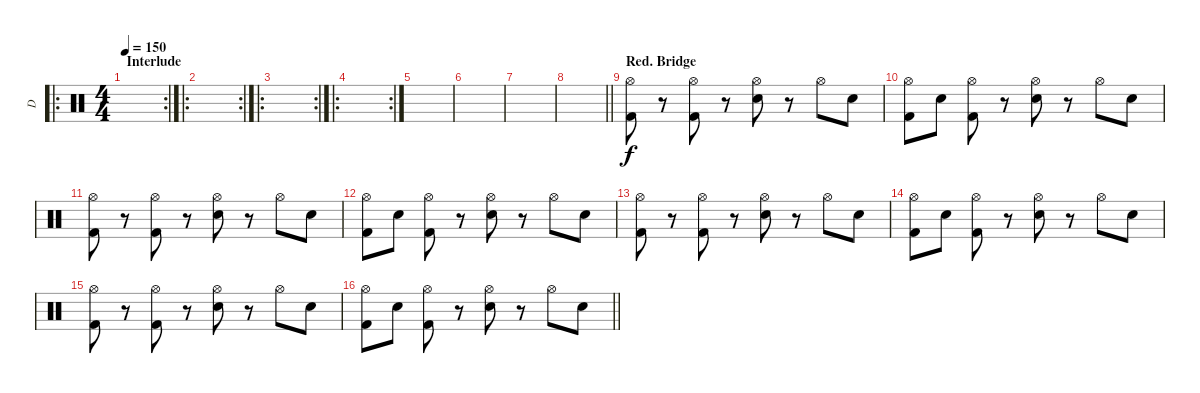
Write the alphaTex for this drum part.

\track ("D" "D") {instrument percussion}
\staff {score}
\articulation defaults
\ro
\rc 2
\ts (4 4)
\section ("" "Interlude")
\tempo 150
\clef neutral
\ks c
|
\ro
\rc 2
|
\ro
\rc 2
|
\ro
\rc 2
|
|
|
|
\barLineRight lightlight
|
\section ("" "Red. Bridge")
("Hi-Hat (open)" "Kick (hit) 2").8 r.8 ("Hi-Hat (open)" "Kick (hit) 2").8 r.8 ("Hi-Hat (open)" "Snare (hit) 2").8 r.8 "Hi-Hat (open)".8 "Snare (hit) 2".8 |
("Hi-Hat (open)" "Kick (hit) 2").8 "Snare (hit) 2".8 ("Hi-Hat (open)" "Kick (hit) 2").8 r.8 ("Hi-Hat (open)" "Snare (hit) 2").8 r.8 "Hi-Hat (open)".8 "Snare (hit) 2".8 |
("Hi-Hat (open)" "Kick (hit) 2").8 r.8 ("Hi-Hat (open)" "Kick (hit) 2").8 r.8 ("Hi-Hat (open)" "Snare (hit) 2").8 r.8 "Hi-Hat (open)".8 "Snare (hit) 2".8 |
("Hi-Hat (open)" "Kick (hit) 2").8 "Snare (hit) 2".8 ("Hi-Hat (open)" "Kick (hit) 2").8 r.8 ("Hi-Hat (open)" "Snare (hit) 2").8 r.8 "Hi-Hat (open)".8 "Snare (hit) 2".8 |
("Hi-Hat (open)" "Kick (hit) 2").8 r.8 ("Hi-Hat (open)" "Kick (hit) 2").8 r.8 ("Hi-Hat (open)" "Snare (hit) 2").8 r.8 "Hi-Hat (open)".8 "Snare (hit) 2".8 |
("Hi-Hat (open)" "Kick (hit) 2").8 "Snare (hit) 2".8 ("Hi-Hat (open)" "Kick (hit) 2").8 r.8 ("Hi-Hat (open)" "Snare (hit) 2").8 r.8 "Hi-Hat (open)".8 "Snare (hit) 2".8 |
("Hi-Hat (open)" "Kick (hit) 2").8 r.8 ("Hi-Hat (open)" "Kick (hit) 2").8 r.8 ("Hi-Hat (open)" "Snare (hit) 2").8 r.8 "Hi-Hat (open)".8 "Snare (hit) 2".8 |
\barLineRight lightlight
("Hi-Hat (open)" "Kick (hit) 2").8 "Snare (hit) 2".8 ("Hi-Hat (open)" "Kick (hit) 2").8 r.8 ("Hi-Hat (open)" "Snare (hit) 2").8 r.8 "Hi-Hat (open)".8 "Snare (hit) 2".8
